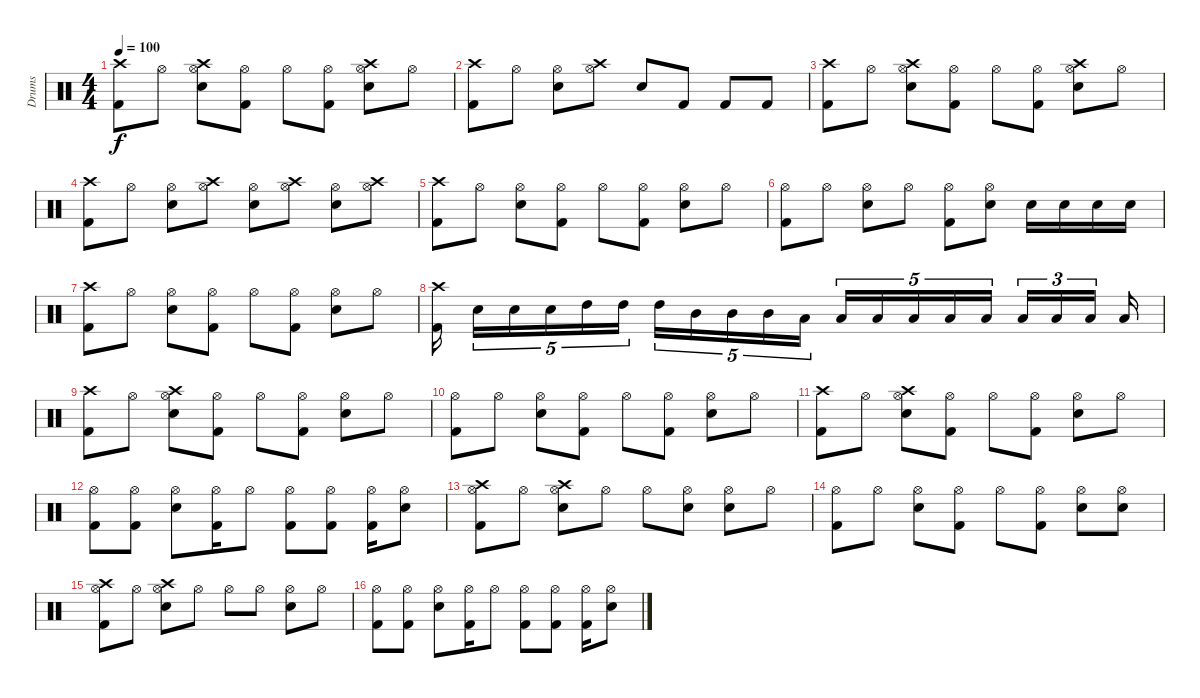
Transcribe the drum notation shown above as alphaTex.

\track ("Drums" "Drums") {instrument percussion}
\staff {score}
\articulation defaults
\ts (4 4)
\tempo 100
\clef neutral
\ks c
("Crash high (hit)" "Kick (hit) 2").8{dy f} "Hi-Hat (open)".8 ("Crash high (hit)" "Hi-Hat (open)" "Electric Snare (hit)").8 ("Hi-Hat (open)" "Kick (hit) 2").8 "Hi-Hat (open)".8 ("Hi-Hat (open)" "Kick (hit) 2").8 ("Crash high (hit)" "Hi-Hat (open)" "Electric Snare (hit)").8 "Hi-Hat (open)".8 |
("Crash high (hit)" "Kick (hit) 2").8 "Hi-Hat (open)".8 ("Hi-Hat (open)" "Electric Snare (hit)").8 ("Crash high (hit)" "Hi-Hat (open)").8 "Electric Snare (hit)".8 "Kick (hit) 2".8 "Kick (hit) 2".8 "Kick (hit) 2".8 |
("Crash high (hit)" "Kick (hit) 2").8 "Hi-Hat (open)".8 ("Crash high (hit)" "Hi-Hat (open)" "Electric Snare (hit)").8 ("Hi-Hat (open)" "Kick (hit) 2").8 "Hi-Hat (open)".8 ("Hi-Hat (open)" "Kick (hit) 2").8 ("Crash high (hit)" "Hi-Hat (open)" "Electric Snare (hit)").8 "Hi-Hat (open)".8 |
("Crash high (hit)" "Kick (hit) 2").8 "Hi-Hat (open)".8 ("Hi-Hat (open)" "Electric Snare (hit)").8 ("Crash high (hit)" "Hi-Hat (open)").8 ("Hi-Hat (open)" "Electric Snare (hit)").8 ("Crash high (hit)" "Hi-Hat (open)").8 ("Hi-Hat (open)" "Electric Snare (hit)").8 ("Crash high (hit)" "Hi-Hat (open)").8 |
("Crash high (hit)" "Kick (hit) 2").8 "Hi-Hat (open)".8 ("Hi-Hat (open)" "Electric Snare (hit)").8 ("Hi-Hat (open)" "Kick (hit) 2").8 "Hi-Hat (open)".8 ("Hi-Hat (open)" "Kick (hit) 2").8 ("Hi-Hat (open)" "Electric Snare (hit)").8 "Hi-Hat (open)".8 |
("Hi-Hat (open)" "Kick (hit) 2").8 "Hi-Hat (open)".8 ("Hi-Hat (open)" "Electric Snare (hit)").8 "Hi-Hat (open)".8 ("Hi-Hat (open)" "Kick (hit) 2").8 ("Hi-Hat (open)" "Electric Snare (hit)").8 "Electric Snare (hit)".16 "Electric Snare (hit)".16 "Electric Snare (hit)".16 "Electric Snare (hit)".16 |
("Crash high (hit)" "Kick (hit) 2").8 "Hi-Hat (open)".8 ("Hi-Hat (open)" "Electric Snare (hit)").8 ("Hi-Hat (open)" "Kick (hit) 2").8 "Hi-Hat (open)".8 ("Hi-Hat (open)" "Kick (hit) 2").8 ("Hi-Hat (open)" "Electric Snare (hit)").8 "Hi-Hat (open)".8 |
("Crash high (hit)" "Kick (hit) 2").16 "Electric Snare (hit)".16{tu (5 4)} "Electric Snare (hit)".16{tu (5 4)} "Electric Snare (hit)".16{tu (5 4)} "High Tom (hit)".16{tu (5 4)} "High Tom (hit)".16{tu (5 4)} "High Tom (hit)".16{tu (5 4)} "Mid Tom (hit)".16{tu (5 4)} "Mid Tom (hit)".16{tu (5 4)} "Mid Tom (hit)".16{tu (5 4)} "Low Tom (hit)".16{tu (5 4)} "Low Tom (hit)".16{tu (5 4)} "Low Tom (hit)".16{tu (5 4)} "Low Floor Tom (hit)".16{tu (5 4)} "Low Floor Tom (hit)".16{tu (5 4)} "Low Floor Tom (hit)".16{tu (5 4)} "Low Floor Tom (hit)".16{tu (3 2)} "Low Floor Tom (hit)".16{tu (3 2)} "Low Floor Tom (hit)".16{tu (3 2)} "Low Floor Tom (hit)".16 |
("Crash high (hit)" "Kick (hit) 2").8 "Hi-Hat (open)".8 ("Crash high (hit)" "Hi-Hat (open)" "Electric Snare (hit)").8 ("Hi-Hat (open)" "Kick (hit) 2").8 "Hi-Hat (open)".8 ("Hi-Hat (open)" "Kick (hit) 2").8 ("Hi-Hat (open)" "Electric Snare (hit)").8 "Hi-Hat (open)".8 |
("Hi-Hat (open)" "Kick (hit) 2").8 "Hi-Hat (open)".8 ("Hi-Hat (open)" "Electric Snare (hit)").8 ("Hi-Hat (open)" "Kick (hit) 2").8 "Hi-Hat (open)".8 ("Hi-Hat (open)" "Kick (hit) 2").8 ("Hi-Hat (open)" "Electric Snare (hit)").8 "Hi-Hat (open)".8 |
("Crash high (hit)" "Kick (hit) 2").8 "Hi-Hat (open)".8 ("Crash high (hit)" "Hi-Hat (open)" "Electric Snare (hit)").8 ("Hi-Hat (open)" "Kick (hit) 2").8 "Hi-Hat (open)".8 ("Hi-Hat (open)" "Kick (hit) 2").8 ("Hi-Hat (open)" "Electric Snare (hit)").8 "Hi-Hat (open)".8 |
("Hi-Hat (open)" "Kick (hit) 2").8 ("Hi-Hat (open)" "Kick (hit) 2").8 ("Hi-Hat (open)" "Electric Snare (hit)").8 ("Hi-Hat (open)" "Kick (hit) 2").16 "Hi-Hat (open)".8 ("Hi-Hat (open)" "Kick (hit) 2").8 ("Hi-Hat (open)" "Kick (hit) 2").8 ("Hi-Hat (open)" "Kick (hit) 2").16 ("Hi-Hat (open)" "Electric Snare (hit)").8 |
("Crash high (hit)" "Hi-Hat (open)" "Kick (hit) 2").8 "Hi-Hat (open)".8 ("Crash high (hit)" "Hi-Hat (open)" "Electric Snare (hit)").8 "Hi-Hat (open)".8 "Hi-Hat (open)".8 ("Hi-Hat (open)" "Electric Snare (hit)").8 ("Hi-Hat (open)" "Electric Snare (hit)").8 "Hi-Hat (open)".8 |
("Hi-Hat (open)" "Kick (hit) 2").8 "Hi-Hat (open)".8 ("Hi-Hat (open)" "Electric Snare (hit)").8 ("Hi-Hat (open)" "Kick (hit) 2").8 "Hi-Hat (open)".8 ("Hi-Hat (open)" "Kick (hit) 2").8 ("Hi-Hat (open)" "Electric Snare (hit)").8 ("Hi-Hat (open)" "Electric Snare (hit)").8 |
("Crash high (hit)" "Hi-Hat (open)" "Kick (hit) 2").8 "Hi-Hat (open)".8 ("Crash high (hit)" "Hi-Hat (open)" "Electric Snare (hit)").8 "Hi-Hat (open)".8 "Hi-Hat (open)".8 "Hi-Hat (open)".8 ("Hi-Hat (open)" "Electric Snare (hit)").8 "Hi-Hat (open)".8 |
("Hi-Hat (open)" "Kick (hit) 2").8 ("Hi-Hat (open)" "Kick (hit) 2").8 ("Hi-Hat (open)" "Electric Snare (hit)").8 ("Hi-Hat (open)" "Kick (hit) 2").16 "Hi-Hat (open)".8 ("Hi-Hat (open)" "Kick (hit) 2").8 ("Hi-Hat (open)" "Kick (hit) 2").8 ("Hi-Hat (open)" "Kick (hit) 2").16 ("Hi-Hat (open)" "Electric Snare (hit)").8
